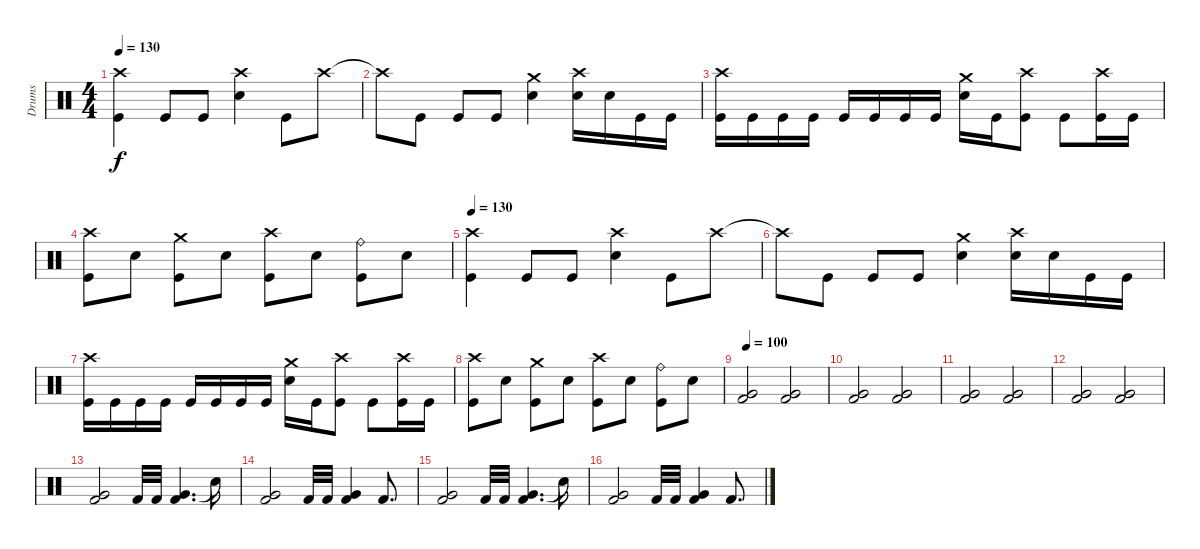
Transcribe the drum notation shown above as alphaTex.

\track ("Drums" "Drums") {instrument percussion}
\staff {score}
\articulation defaults
\ts (4 4)
\tempo 140
\tempo 130
\clef neutral
\ks c
("Crash high (hit)" "Kick (hit)").4{dy f} "Kick (hit)".8 "Kick (hit)".8 ("Crash high (hit)" "Electric Snare (hit)").4 "Kick (hit)".8 "Crash high (hit)".8 |
"Crash high (hit)"{t}.8 "Kick (hit)".8 "Kick (hit)".8 "Kick (hit)".8 ("Crash medium (hit)" "Electric Snare (hit)").4 ("Crash high (hit)" "Electric Snare (hit)").16 "Electric Snare (hit)".16 "Kick (hit)".16 "Kick (hit)".16 |
("Crash high (hit)" "Kick (hit)").16 "Kick (hit)".16 "Kick (hit)".16 "Kick (hit)".16 "Kick (hit)".16 "Kick (hit)".16 "Kick (hit)".16 "Kick (hit)".16 ("Crash medium (hit)" "Electric Snare (hit)").16 "Kick (hit)".16 ("Crash high (hit)" "Kick (hit)").8 "Kick (hit)".8 ("Crash high (hit)" "Kick (hit)").16 "Kick (hit)".16 |
("Crash high (hit)" "Kick (hit)").8 "Electric Snare (hit)".8 ("Crash medium (hit)" "Kick (hit)").8 "Electric Snare (hit)".8 ("Crash high (hit)" "Kick (hit)").8 "Electric Snare (hit)".8 ("Ride (bell)" "Kick (hit)").8 "Electric Snare (hit)".8 |
\tempo 140
\tempo 130
("Crash high (hit)" "Kick (hit)").4 "Kick (hit)".8 "Kick (hit)".8 ("Crash high (hit)" "Electric Snare (hit)").4 "Kick (hit)".8 "Crash high (hit)".8 |
"Crash high (hit)"{t}.8 "Kick (hit)".8 "Kick (hit)".8 "Kick (hit)".8 ("Crash medium (hit)" "Electric Snare (hit)").4 ("Crash high (hit)" "Electric Snare (hit)").16 "Electric Snare (hit)".16 "Kick (hit)".16 "Kick (hit)".16 |
("Crash high (hit)" "Kick (hit)").16 "Kick (hit)".16 "Kick (hit)".16 "Kick (hit)".16 "Kick (hit)".16 "Kick (hit)".16 "Kick (hit)".16 "Kick (hit)".16 ("Crash medium (hit)" "Electric Snare (hit)").16 "Kick (hit)".16 ("Crash high (hit)" "Kick (hit)").8 "Kick (hit)".8 ("Crash high (hit)" "Kick (hit)").16 "Kick (hit)".16 |
("Crash high (hit)" "Kick (hit)").8 "Electric Snare (hit)".8 ("Crash medium (hit)" "Kick (hit)").8 "Electric Snare (hit)".8 ("Crash high (hit)" "Kick (hit)").8 "Electric Snare (hit)".8 ("Ride (bell)" "Kick (hit)").8 "Electric Snare (hit)".8 |
\tempo 100
("Kick (hit) 2" "Very Low Tom (hit)").2{volume 16} ("Kick (hit) 2" "Very Low Tom (hit)").2 |
("Kick (hit) 2" "Very Low Tom (hit)").2 ("Kick (hit) 2" "Very Low Tom (hit)").2 |
("Kick (hit) 2" "Very Low Tom (hit)").2 ("Kick (hit) 2" "Very Low Tom (hit)").2 |
("Kick (hit) 2" "Very Low Tom (hit)").2 ("Kick (hit) 2" "Very Low Tom (hit)").2 |
("Kick (hit) 2" "Very Low Tom (hit)").2 "Kick (hit) 2".32 "Kick (hit) 2".32 ("Very Low Tom (hit)" "Kick (hit) 2").4{d} "Snare (hit)"{t}.16 |
("Kick (hit) 2" "Very Low Tom (hit)").2 "Kick (hit) 2".32 "Kick (hit) 2".32 ("Very Low Tom (hit)" "Kick (hit) 2").4 "Kick (hit) 2".8{d} |
("Kick (hit) 2" "Very Low Tom (hit)").2 "Kick (hit) 2".32 "Kick (hit) 2".32 ("Very Low Tom (hit)" "Kick (hit) 2").4{d} "Snare (hit)"{t}.16 |
("Kick (hit) 2" "Very Low Tom (hit)").2 "Kick (hit) 2".32 "Kick (hit) 2".32 ("Very Low Tom (hit)" "Kick (hit) 2").4 "Kick (hit) 2".8{d}
